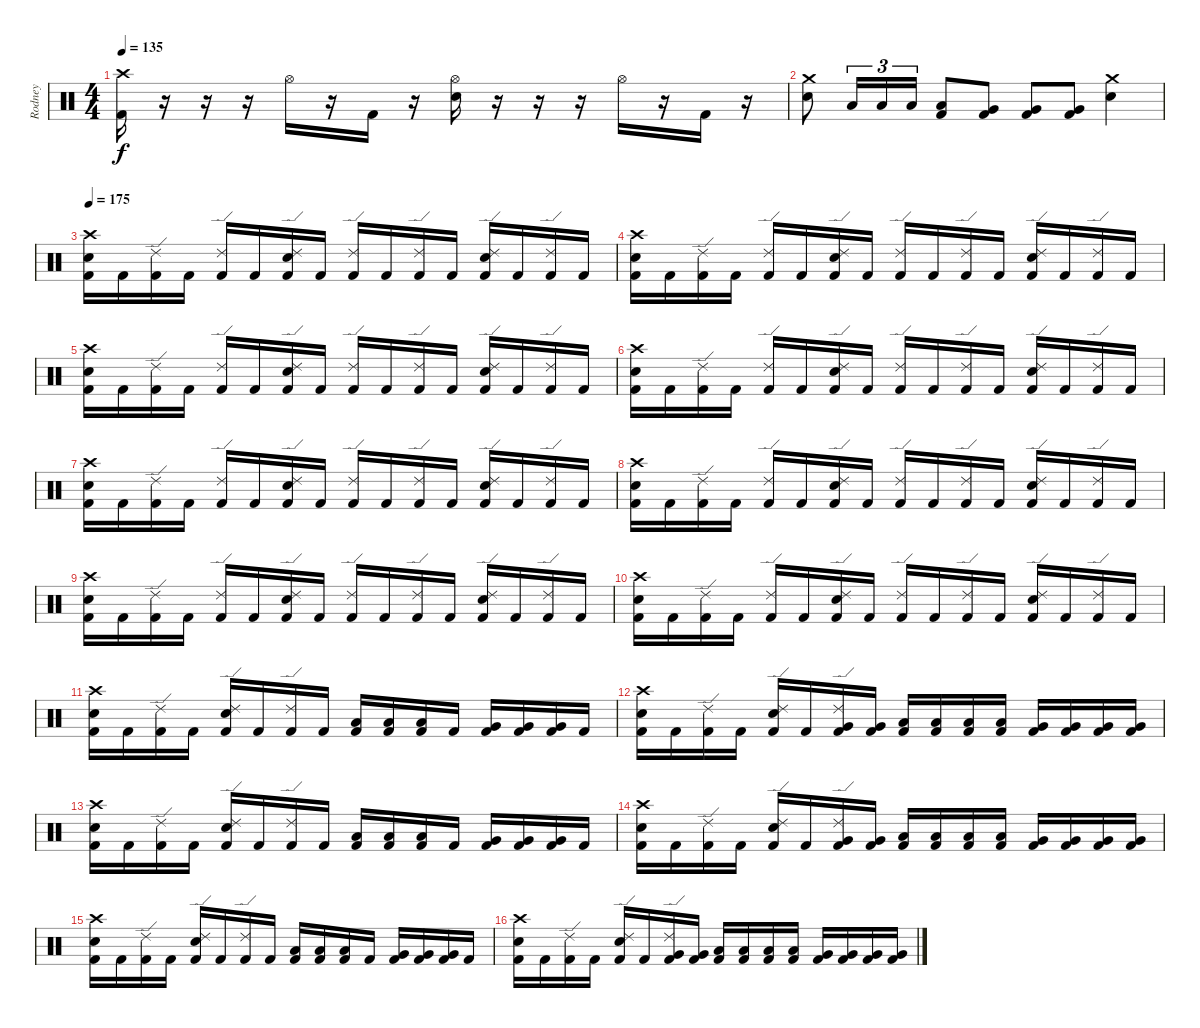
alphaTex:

\track ("Rodney" "Rodney") {instrument percussion}
\staff {score}
\articulation defaults
\ts (4 4)
\tempo 135
\clef neutral
\ks c
("Crash high (hit)" "Kick (hit) 2").16{dy f} r.16 r.16 r.16 "Hi-Hat (open)".16 r.16 "Kick (hit) 2".16 r.16 ("Hi-Hat (open)" "Snare (hit) 2").16 r.16 r.16 r.16 "Hi-Hat (open)".16 r.16 "Kick (hit) 2".16 r.16 |
("Crash medium (hit)" "Snare (hit) 2").8 "Low Tom (hit)".16{tu (3 2)} "Low Tom (hit)".16{tu (3 2)} "Low Tom (hit)".16{tu (3 2)} ("Low Tom (hit)" "Kick (hit) 2").8 ("Very Low Tom (hit)" "Kick (hit) 2").8 ("Very Low Tom (hit)" "Kick (hit) 2").8 ("Very Low Tom (hit)" "Kick (hit) 2").8 ("Crash medium (hit)" "Snare (hit) 2").4 |
\tempo 175
("Crash high (hit)" "Snare (hit) 2" "Kick (hit) 2").16 "Kick (hit) 2".16 ("Ride (edge) 2" "Kick (hit) 2").16 "Kick (hit) 2".16 ("Ride (edge) 2" "Kick (hit) 2").16 "Kick (hit) 2".16 ("Ride (edge) 2" "Snare (hit) 2" "Kick (hit) 2").16 "Kick (hit) 2".16 ("Ride (edge) 2" "Kick (hit) 2").16 "Kick (hit) 2".16 ("Ride (edge) 2" "Kick (hit) 2").16 "Kick (hit) 2".16 ("Ride (edge) 2" "Snare (hit) 2" "Kick (hit) 2").16 "Kick (hit) 2".16 ("Ride (edge) 2" "Kick (hit) 2").16 "Kick (hit) 2".16 |
("Crash high (hit)" "Snare (hit) 2" "Kick (hit) 2").16 "Kick (hit) 2".16 ("Ride (edge) 2" "Kick (hit) 2").16 "Kick (hit) 2".16 ("Ride (edge) 2" "Kick (hit) 2").16 "Kick (hit) 2".16 ("Ride (edge) 2" "Snare (hit) 2" "Kick (hit) 2").16 "Kick (hit) 2".16 ("Ride (edge) 2" "Kick (hit) 2").16 "Kick (hit) 2".16 ("Ride (edge) 2" "Kick (hit) 2").16 "Kick (hit) 2".16 ("Ride (edge) 2" "Snare (hit) 2" "Kick (hit) 2").16 "Kick (hit) 2".16 ("Ride (edge) 2" "Kick (hit) 2").16 "Kick (hit) 2".16 |
("Crash high (hit)" "Snare (hit) 2" "Kick (hit) 2").16 "Kick (hit) 2".16 ("Ride (edge) 2" "Kick (hit) 2").16 "Kick (hit) 2".16 ("Ride (edge) 2" "Kick (hit) 2").16 "Kick (hit) 2".16 ("Ride (edge) 2" "Snare (hit) 2" "Kick (hit) 2").16 "Kick (hit) 2".16 ("Ride (edge) 2" "Kick (hit) 2").16 "Kick (hit) 2".16 ("Ride (edge) 2" "Kick (hit) 2").16 "Kick (hit) 2".16 ("Ride (edge) 2" "Snare (hit) 2" "Kick (hit) 2").16 "Kick (hit) 2".16 ("Ride (edge) 2" "Kick (hit) 2").16 "Kick (hit) 2".16 |
("Crash high (hit)" "Snare (hit) 2" "Kick (hit) 2").16 "Kick (hit) 2".16 ("Ride (edge) 2" "Kick (hit) 2").16 "Kick (hit) 2".16 ("Ride (edge) 2" "Kick (hit) 2").16 "Kick (hit) 2".16 ("Ride (edge) 2" "Snare (hit) 2" "Kick (hit) 2").16 "Kick (hit) 2".16 ("Ride (edge) 2" "Kick (hit) 2").16 "Kick (hit) 2".16 ("Ride (edge) 2" "Kick (hit) 2").16 "Kick (hit) 2".16 ("Ride (edge) 2" "Snare (hit) 2" "Kick (hit) 2").16 "Kick (hit) 2".16 ("Ride (edge) 2" "Kick (hit) 2").16 "Kick (hit) 2".16 |
("Crash high (hit)" "Snare (hit) 2" "Kick (hit) 2").16 "Kick (hit) 2".16 ("Ride (edge) 2" "Kick (hit) 2").16 "Kick (hit) 2".16 ("Ride (edge) 2" "Kick (hit) 2").16 "Kick (hit) 2".16 ("Ride (edge) 2" "Snare (hit) 2" "Kick (hit) 2").16 "Kick (hit) 2".16 ("Ride (edge) 2" "Kick (hit) 2").16 "Kick (hit) 2".16 ("Ride (edge) 2" "Kick (hit) 2").16 "Kick (hit) 2".16 ("Ride (edge) 2" "Snare (hit) 2" "Kick (hit) 2").16 "Kick (hit) 2".16 ("Ride (edge) 2" "Kick (hit) 2").16 "Kick (hit) 2".16 |
("Crash high (hit)" "Snare (hit) 2" "Kick (hit) 2").16 "Kick (hit) 2".16 ("Ride (edge) 2" "Kick (hit) 2").16 "Kick (hit) 2".16 ("Ride (edge) 2" "Kick (hit) 2").16 "Kick (hit) 2".16 ("Ride (edge) 2" "Snare (hit) 2" "Kick (hit) 2").16 "Kick (hit) 2".16 ("Ride (edge) 2" "Kick (hit) 2").16 "Kick (hit) 2".16 ("Ride (edge) 2" "Kick (hit) 2").16 "Kick (hit) 2".16 ("Ride (edge) 2" "Snare (hit) 2" "Kick (hit) 2").16 "Kick (hit) 2".16 ("Ride (edge) 2" "Kick (hit) 2").16 "Kick (hit) 2".16 |
("Crash high (hit)" "Snare (hit) 2" "Kick (hit) 2").16 "Kick (hit) 2".16 ("Ride (edge) 2" "Kick (hit) 2").16 "Kick (hit) 2".16 ("Ride (edge) 2" "Kick (hit) 2").16 "Kick (hit) 2".16 ("Ride (edge) 2" "Snare (hit) 2" "Kick (hit) 2").16 "Kick (hit) 2".16 ("Ride (edge) 2" "Kick (hit) 2").16 "Kick (hit) 2".16 ("Ride (edge) 2" "Kick (hit) 2").16 "Kick (hit) 2".16 ("Ride (edge) 2" "Snare (hit) 2" "Kick (hit) 2").16 "Kick (hit) 2".16 ("Ride (edge) 2" "Kick (hit) 2").16 "Kick (hit) 2".16 |
("Crash high (hit)" "Snare (hit) 2" "Kick (hit) 2").16 "Kick (hit) 2".16 ("Ride (edge) 2" "Kick (hit) 2").16 "Kick (hit) 2".16 ("Ride (edge) 2" "Kick (hit) 2").16 "Kick (hit) 2".16 ("Ride (edge) 2" "Snare (hit) 2" "Kick (hit) 2").16 "Kick (hit) 2".16 ("Ride (edge) 2" "Kick (hit) 2").16 "Kick (hit) 2".16 ("Ride (edge) 2" "Kick (hit) 2").16 "Kick (hit) 2".16 ("Ride (edge) 2" "Snare (hit) 2" "Kick (hit) 2").16 "Kick (hit) 2".16 ("Ride (edge) 2" "Kick (hit) 2").16 "Kick (hit) 2".16 |
("Crash high (hit)" "Snare (hit) 2" "Kick (hit) 2").16 "Kick (hit) 2".16 ("Ride (edge) 2" "Kick (hit) 2").16 "Kick (hit) 2".16 ("Ride (edge) 2" "Snare (hit) 2" "Kick (hit) 2").16 "Kick (hit) 2".16 ("Ride (edge) 2" "Kick (hit) 2").16 "Kick (hit) 2".16 ("Low Tom (hit)" "Kick (hit) 2").16 ("Low Tom (hit)" "Kick (hit) 2").16 ("Low Tom (hit)" "Kick (hit) 2").16 "Kick (hit) 2".16 ("Very Low Tom (hit)" "Kick (hit) 2").16 ("Very Low Tom (hit)" "Kick (hit) 2").16 ("Very Low Tom (hit)" "Kick (hit) 2").16 "Kick (hit) 2".16 |
("Crash high (hit)" "Snare (hit) 2" "Kick (hit) 2").16 "Kick (hit) 2".16 ("Ride (edge) 2" "Kick (hit) 2").16 "Kick (hit) 2".16 ("Ride (edge) 2" "Snare (hit) 2" "Kick (hit) 2").16 "Kick (hit) 2".16 ("Ride (edge) 2" "Very Low Tom (hit)" "Kick (hit) 2").16 ("Very Low Tom (hit)" "Kick (hit) 2").16 ("Low Tom (hit)" "Kick (hit) 2").16 ("Low Tom (hit)" "Kick (hit) 2").16 ("Low Tom (hit)" "Kick (hit) 2").16 ("Low Tom (hit)" "Kick (hit) 2").16 ("Very Low Tom (hit)" "Kick (hit) 2").16 ("Very Low Tom (hit)" "Kick (hit) 2").16 ("Very Low Tom (hit)" "Kick (hit) 2").16 ("Very Low Tom (hit)" "Kick (hit) 2").16 |
("Crash high (hit)" "Snare (hit) 2" "Kick (hit) 2").16 "Kick (hit) 2".16 ("Ride (edge) 2" "Kick (hit) 2").16 "Kick (hit) 2".16 ("Ride (edge) 2" "Snare (hit) 2" "Kick (hit) 2").16 "Kick (hit) 2".16 ("Ride (edge) 2" "Kick (hit) 2").16 "Kick (hit) 2".16 ("Low Tom (hit)" "Kick (hit) 2").16 ("Low Tom (hit)" "Kick (hit) 2").16 ("Low Tom (hit)" "Kick (hit) 2").16 "Kick (hit) 2".16 ("Very Low Tom (hit)" "Kick (hit) 2").16 ("Very Low Tom (hit)" "Kick (hit) 2").16 ("Very Low Tom (hit)" "Kick (hit) 2").16 "Kick (hit) 2".16 |
("Crash high (hit)" "Snare (hit) 2" "Kick (hit) 2").16 "Kick (hit) 2".16 ("Ride (edge) 2" "Kick (hit) 2").16 "Kick (hit) 2".16 ("Ride (edge) 2" "Snare (hit) 2" "Kick (hit) 2").16 "Kick (hit) 2".16 ("Ride (edge) 2" "Very Low Tom (hit)" "Kick (hit) 2").16 ("Very Low Tom (hit)" "Kick (hit) 2").16 ("Low Tom (hit)" "Kick (hit) 2").16 ("Low Tom (hit)" "Kick (hit) 2").16 ("Low Tom (hit)" "Kick (hit) 2").16 ("Low Tom (hit)" "Kick (hit) 2").16 ("Very Low Tom (hit)" "Kick (hit) 2").16 ("Very Low Tom (hit)" "Kick (hit) 2").16 ("Very Low Tom (hit)" "Kick (hit) 2").16 ("Very Low Tom (hit)" "Kick (hit) 2").16 |
("Crash high (hit)" "Snare (hit) 2" "Kick (hit) 2").16 "Kick (hit) 2".16 ("Ride (edge) 2" "Kick (hit) 2").16 "Kick (hit) 2".16 ("Ride (edge) 2" "Snare (hit) 2" "Kick (hit) 2").16 "Kick (hit) 2".16 ("Ride (edge) 2" "Kick (hit) 2").16 "Kick (hit) 2".16 ("Low Tom (hit)" "Kick (hit) 2").16 ("Low Tom (hit)" "Kick (hit) 2").16 ("Low Tom (hit)" "Kick (hit) 2").16 "Kick (hit) 2".16 ("Very Low Tom (hit)" "Kick (hit) 2").16 ("Very Low Tom (hit)" "Kick (hit) 2").16 ("Very Low Tom (hit)" "Kick (hit) 2").16 "Kick (hit) 2".16 |
("Crash high (hit)" "Snare (hit) 2" "Kick (hit) 2").16 "Kick (hit) 2".16 ("Ride (edge) 2" "Kick (hit) 2").16 "Kick (hit) 2".16 ("Ride (edge) 2" "Snare (hit) 2" "Kick (hit) 2").16 "Kick (hit) 2".16 ("Ride (edge) 2" "Very Low Tom (hit)" "Kick (hit) 2").16 ("Very Low Tom (hit)" "Kick (hit) 2").16 ("Low Tom (hit)" "Kick (hit) 2").16 ("Low Tom (hit)" "Kick (hit) 2").16 ("Low Tom (hit)" "Kick (hit) 2").16 ("Low Tom (hit)" "Kick (hit) 2").16 ("Very Low Tom (hit)" "Kick (hit) 2").16 ("Very Low Tom (hit)" "Kick (hit) 2").16 ("Very Low Tom (hit)" "Kick (hit) 2").16 ("Very Low Tom (hit)" "Kick (hit) 2").16
